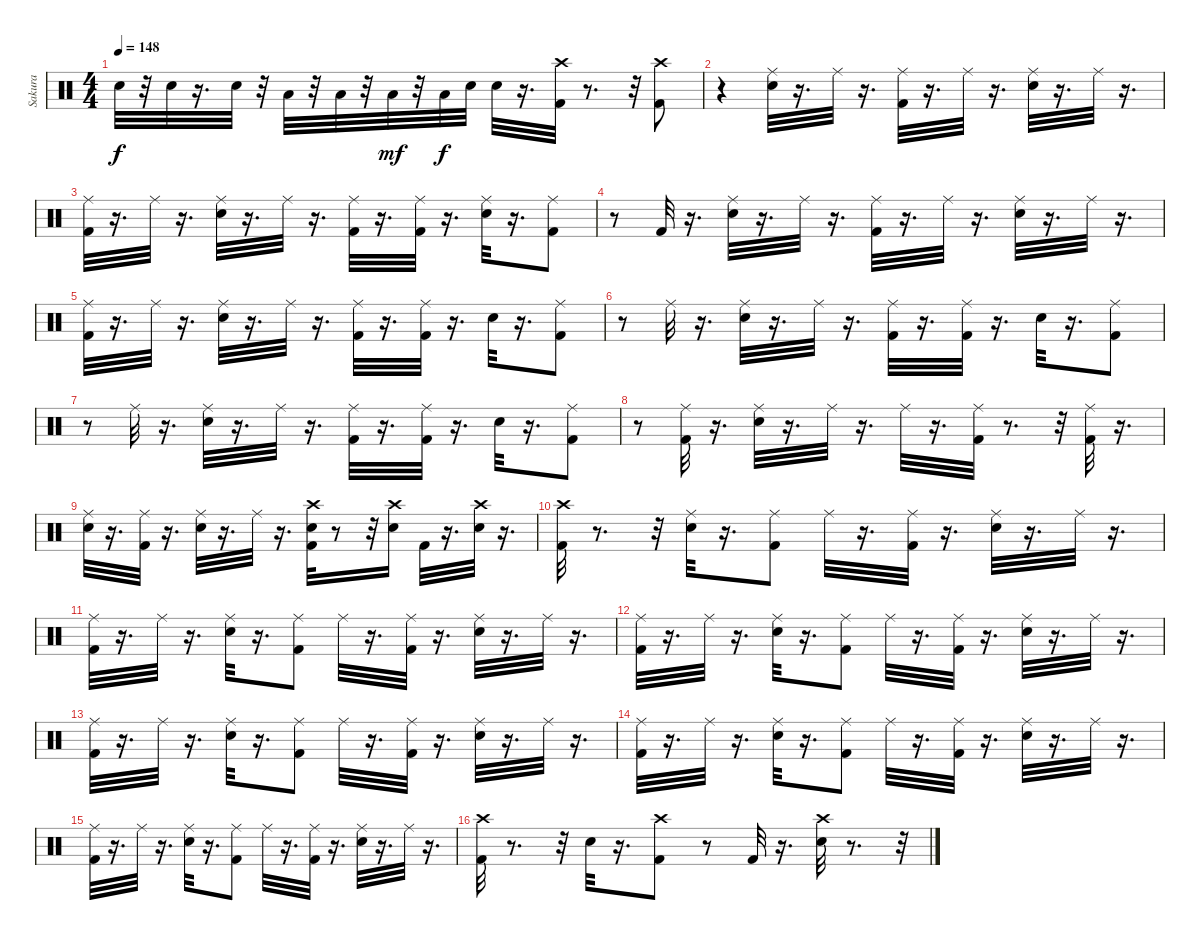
\track ("Sakura" "Sakura") {instrument percussion}
\staff {score}
\articulation defaults
\ts (4 4)
\tempo 148
\clef neutral
\ks c "Snare (hit) 2".32{dy f}
r.32 "Snare (hit) 2".32 r.16{d} "Snare (hit) 2".32 r.32 "Low Tom (hit)".32 r.32 "Low Tom (hit)".32 r.32 "Low Tom (hit)".32{dy mf} r.32 "Low Tom (hit)".32{dy f} "Snare (hit) 2".32 "Snare (hit) 2".32 r.16{d} ("Crash high (hit)" "Kick (hit) 2").32 r.8{d} r.32 ("Kick (hit) 2" "Crash high (hit)").8 |
r.4 ("Ride (middle)" "Snare (hit) 2").32 r.16{d} "Ride (middle)".32 r.16{d} ("Ride (middle)" "Kick (hit) 2").32 r.16{d} "Ride (middle)".32 r.16{d} ("Ride (middle)" "Snare (hit) 2").32 r.16{d} "Ride (middle)".32 r.16{d} |
("Ride (middle)" "Kick (hit) 2").32 r.16{d} "Ride (middle)".32 r.16{d} ("Ride (middle)" "Snare (hit) 2").32 r.16{d} "Ride (middle)".32 r.16{d} ("Ride (middle)" "Kick (hit) 2").32 r.16{d} ("Ride (middle)" "Kick (hit) 2").32 r.16{d} ("Ride (middle)" "Snare (hit) 2").32 r.16{d} ("Ride (middle)" "Kick (hit) 2").8 |
r.8 "Kick (hit) 2".32 r.16{d} ("Ride (middle)" "Snare (hit) 2").32 r.16{d} "Ride (middle)".32 r.16{d} ("Ride (middle)" "Kick (hit) 2").32 r.16{d} "Ride (middle)".32 r.16{d} ("Ride (middle)" "Snare (hit) 2").32 r.16{d} "Ride (middle)".32 r.16{d} |
("Ride (middle)" "Kick (hit) 2").32 r.16{d} "Ride (middle)".32 r.16{d} ("Ride (middle)" "Snare (hit) 2").32 r.16{d} "Ride (middle)".32 r.16{d} ("Ride (middle)" "Kick (hit) 2").32 r.16{d} ("Ride (middle)" "Kick (hit) 2").32 r.16{d} "Snare (hit) 2".32 r.16{d} ("Ride (middle)" "Kick (hit) 2").8 |
r.8 "Ride (middle)".32 r.16{d} ("Ride (middle)" "Snare (hit) 2").32 r.16{d} "Ride (middle)".32 r.16{d} ("Ride (middle)" "Kick (hit) 2").32 r.16{d} ("Ride (middle)" "Kick (hit) 2").32 r.16{d} "Snare (hit) 2".32 r.16{d} ("Ride (middle)" "Kick (hit) 2").8 |
r.8 "Ride (middle)".32 r.16{d} ("Ride (middle)" "Snare (hit) 2").32 r.16{d} "Ride (middle)".32 r.16{d} ("Ride (middle)" "Kick (hit) 2").32 r.16{d} ("Ride (middle)" "Kick (hit) 2").32 r.16{d} "Snare (hit) 2".32 r.16{d} ("Ride (middle)" "Kick (hit) 2").8 |
r.8 ("Ride (middle)" "Kick (hit) 2").32 r.16{d} ("Ride (middle)" "Snare (hit) 2").32 r.16{d} "Ride (middle)".32 r.16{d} "Ride (middle)".32 r.16{d} ("Ride (middle)" "Kick (hit) 2").32 r.8{d} r.32 ("Ride (middle)" "Kick (hit) 2").32 r.16{d} |
("Ride (middle)" "Snare (hit) 2").32 r.16{d} ("Ride (middle)" "Kick (hit) 2").32 r.16{d} ("Snare (hit) 2" "Ride (middle)").32 r.16{d} "Ride (middle)".32 r.16{d} ("Kick (hit) 2" "Crash high (hit)" "Snare (hit) 2").32 r.8 r.32 ("Crash high (hit)" "Snare (hit) 2").16 "Kick (hit) 2".32 r.16{d} ("Snare (hit) 2" "Crash high (hit)").32 r.16{d} |
("Crash high (hit)" "Kick (hit) 2").32 r.8{d} r.32 ("Snare (hit) 2" "Ride (middle)").32 r.16{d} ("Ride (middle)" "Kick (hit) 2").8 "Ride (middle)".32 r.16{d} ("Kick (hit) 2" "Ride (middle)").32 r.16{d} ("Ride (middle)" "Snare (hit) 2").32 r.16{d} "Ride (middle)".32 r.16{d} |
("Ride (middle)" "Kick (hit) 2").32 r.16{d} "Ride (middle)".32 r.16{d} ("Snare (hit) 2" "Ride (middle)").32 r.16{d} ("Ride (middle)" "Kick (hit) 2").8 "Ride (middle)".32 r.16{d} ("Kick (hit) 2" "Ride (middle)").32 r.16{d} ("Ride (middle)" "Snare (hit) 2").32 r.16{d} "Ride (middle)".32 r.16{d} |
("Ride (middle)" "Kick (hit) 2").32 r.16{d} "Ride (middle)".32 r.16{d} ("Snare (hit) 2" "Ride (middle)").32 r.16{d} ("Ride (middle)" "Kick (hit) 2").8 "Ride (middle)".32 r.16{d} ("Kick (hit) 2" "Ride (middle)").32 r.16{d} ("Ride (middle)" "Snare (hit) 2").32 r.16{d} "Ride (middle)".32 r.16{d} |
("Ride (middle)" "Kick (hit) 2").32 r.16{d} "Ride (middle)".32 r.16{d} ("Snare (hit) 2" "Ride (middle)").32 r.16{d} ("Ride (middle)" "Kick (hit) 2").8 "Ride (middle)".32 r.16{d} ("Kick (hit) 2" "Ride (middle)").32 r.16{d} ("Ride (middle)" "Snare (hit) 2").32 r.16{d} "Ride (middle)".32 r.16{d} |
("Ride (middle)" "Kick (hit) 2").32 r.16{d} "Ride (middle)".32 r.16{d} ("Snare (hit) 2" "Ride (middle)").32 r.16{d} ("Ride (middle)" "Kick (hit) 2").8 "Ride (middle)".32 r.16{d} ("Kick (hit) 2" "Ride (middle)").32 r.16{d} ("Ride (middle)" "Snare (hit) 2").32 r.16{d} "Ride (middle)".32 r.16{d} |
("Ride (middle)" "Kick (hit) 2").32 r.16{d} "Ride (middle)".32 r.16{d} ("Snare (hit) 2" "Ride (middle)").32 r.16{d} ("Ride (middle)" "Kick (hit) 2").8 "Ride (middle)".32 r.16{d} ("Kick (hit) 2" "Ride (middle)").32 r.16{d} ("Ride (middle)" "Snare (hit) 2").32 r.16{d} "Ride (middle)".32 r.16{d} |
("Crash high (hit)" "Kick (hit) 2").32 r.8{d} r.32 "Snare (hit) 2".32 r.16{d} ("Crash high (hit)" "Kick (hit) 2").8 r.8 "Kick (hit) 2".32 r.16{d} ("Crash high (hit)" "Snare (hit) 2").32 r.8{d} r.32
